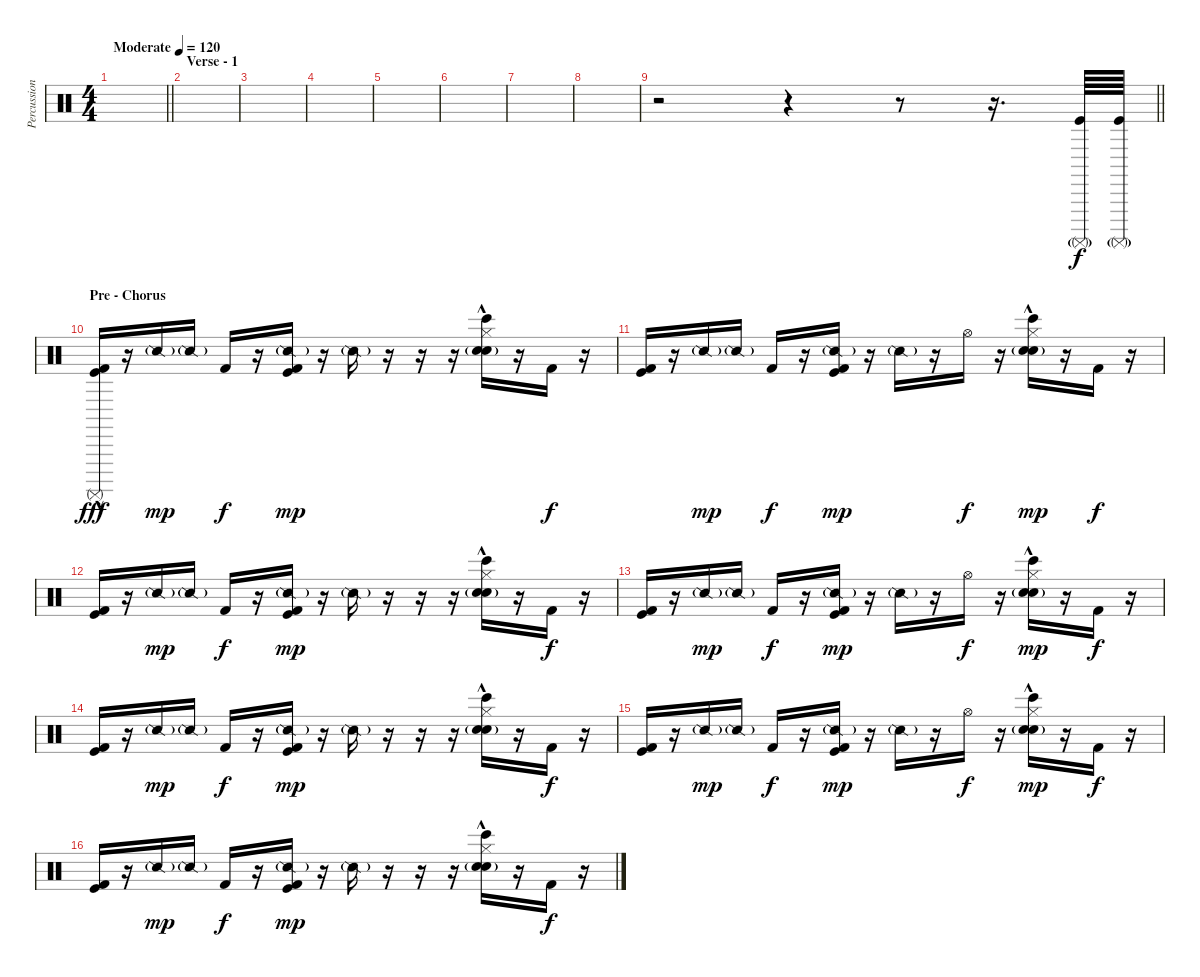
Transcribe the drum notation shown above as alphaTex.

\track ("Percussion" "Percussion") {instrument percussion}
\staff {score}
\articulation defaults
\ts (4 4)
\tempo (120 "Moderate")
\clef neutral
\barLineRight lightlight
\ks c
|
\section ("" "Verse - 1")
|
|
|
|
|
|
|
\barLineRight lightlight
r.2 r.4 r.8 r.16{d} ("Surdo (mute)"{g} "Kick (hit)").64 ("Surdo (mute)"{g} "Kick (hit)").64 |
\section ("" "Pre - Chorus")
("Surdo (mute)" "Kick (hit) 2"{hac} "Kick (hit)").16{dy fff} r.16 "Snare (side stick) 2"{g}.16{dy mp} "Snare (side stick) 2"{g}.16 "Kick (hit) 2".16{dy f} r.16 ("Snare (side stick) 2"{g} "Kick (hit) 2" "Kick (hit)").16{dy mp} r.16 "Snare (side stick) 2"{g}.16 r.16 r.16 r.16 ("Hi-Hat (closed)"{hac} "Hand Clap (hit)" "Bongo High (hit)" "Electric Snare (hit)"{g}).16 r.16 "Kick (hit) 2".16{dy f} r.16 |
("Kick (hit) 2" "Kick (hit)").16 r.16 "Snare (side stick) 2"{g}.16{dy mp} "Snare (side stick) 2"{g}.16 "Kick (hit) 2".16{dy f} r.16 ("Snare (side stick) 2"{g} "Kick (hit) 2" "Kick (hit)").16{dy mp} r.16 "Snare (side stick) 2"{g}.16 r.16 "Hi-Hat (open)".16{dy f} r.16 ("Hi-Hat (closed)"{hac} "Hand Clap (hit)" "Bongo High (hit)" "Electric Snare (hit)"{g}).16{dy mp} r.16 "Kick (hit) 2".16{dy f} r.16 |
("Kick (hit) 2" "Kick (hit)").16 r.16 "Snare (side stick) 2"{g}.16{dy mp} "Snare (side stick) 2"{g}.16 "Kick (hit) 2".16{dy f} r.16 ("Snare (side stick) 2"{g} "Kick (hit) 2" "Kick (hit)").16{dy mp} r.16 "Snare (side stick) 2"{g}.16 r.16 r.16 r.16 ("Hi-Hat (closed)"{hac} "Hand Clap (hit)" "Bongo High (hit)" "Electric Snare (hit)"{g}).16 r.16 "Kick (hit) 2".16{dy f} r.16 |
("Kick (hit) 2" "Kick (hit)").16 r.16 "Snare (side stick) 2"{g}.16{dy mp} "Snare (side stick) 2"{g}.16 "Kick (hit) 2".16{dy f} r.16 ("Snare (side stick) 2"{g} "Kick (hit) 2" "Kick (hit)").16{dy mp} r.16 "Snare (side stick) 2"{g}.16 r.16 "Hi-Hat (open)".16{dy f} r.16 ("Hi-Hat (closed)"{hac} "Hand Clap (hit)" "Bongo High (hit)" "Electric Snare (hit)"{g}).16{dy mp} r.16 "Kick (hit) 2".16{dy f} r.16 |
("Kick (hit) 2" "Kick (hit)").16 r.16 "Snare (side stick) 2"{g}.16{dy mp} "Snare (side stick) 2"{g}.16 "Kick (hit) 2".16{dy f} r.16 ("Snare (side stick) 2"{g} "Kick (hit) 2" "Kick (hit)").16{dy mp} r.16 "Snare (side stick) 2"{g}.16 r.16 r.16 r.16 ("Hi-Hat (closed)"{hac} "Hand Clap (hit)" "Bongo High (hit)" "Electric Snare (hit)"{g}).16 r.16 "Kick (hit) 2".16{dy f} r.16 |
("Kick (hit) 2" "Kick (hit)").16 r.16 "Snare (side stick) 2"{g}.16{dy mp} "Snare (side stick) 2"{g}.16 "Kick (hit) 2".16{dy f} r.16 ("Snare (side stick) 2"{g} "Kick (hit) 2" "Kick (hit)").16{dy mp} r.16 "Snare (side stick) 2"{g}.16 r.16 "Hi-Hat (open)".16{dy f} r.16 ("Hi-Hat (closed)"{hac} "Hand Clap (hit)" "Bongo High (hit)" "Electric Snare (hit)"{g}).16{dy mp} r.16 "Kick (hit) 2".16{dy f} r.16 |
("Kick (hit) 2" "Kick (hit)").16 r.16 "Snare (side stick) 2"{g}.16{dy mp} "Snare (side stick) 2"{g}.16 "Kick (hit) 2".16{dy f} r.16 ("Snare (side stick) 2"{g} "Kick (hit) 2" "Kick (hit)").16{dy mp} r.16 "Snare (side stick) 2"{g}.16 r.16 r.16 r.16 ("Hi-Hat (closed)"{hac} "Hand Clap (hit)" "Bongo High (hit)" "Electric Snare (hit)"{g}).16 r.16 "Kick (hit) 2".16{dy f} r.16
